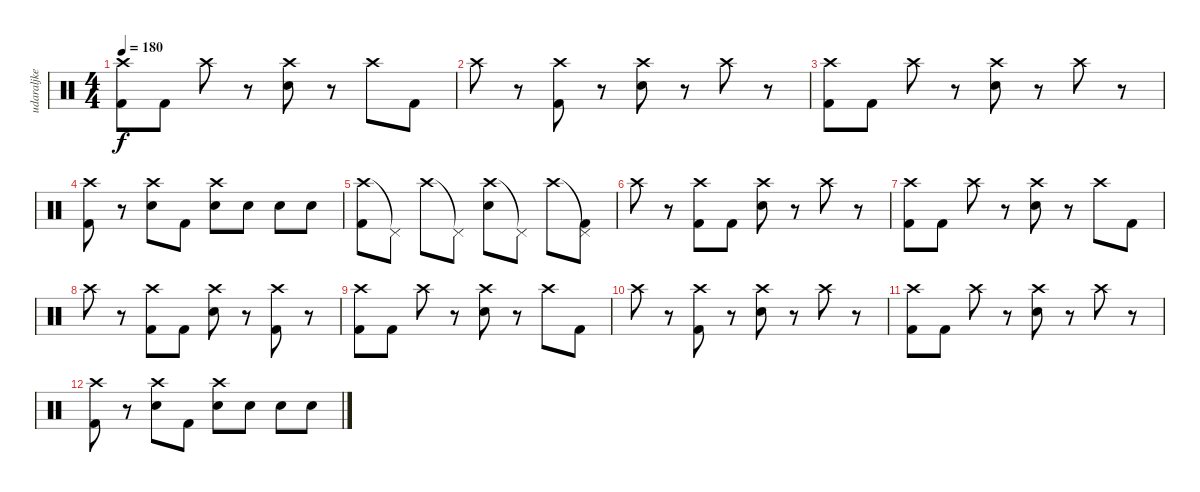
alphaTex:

\track ("udaraljke" "udaraljke") {instrument percussion}
\staff {score}
\articulation defaults
\ts (4 4)
\tempo 180
\clef neutral
\ks c
("Crash high (hit)" "Kick (hit) 2").8{dy f} "Kick (hit) 2".8 "Crash high (hit)".8 r.8 ("Crash high (hit)" "Snare (hit) 2").8 r.8 "Crash high (hit)".8 "Kick (hit) 2".8 |
"Crash high (hit)".8 r.8 ("Crash high (hit)" "Kick (hit) 2").8 r.8 ("Crash high (hit)" "Snare (hit) 2").8 r.8 "Crash high (hit)".8 r.8 |
("Crash high (hit)" "Kick (hit) 2").8 "Kick (hit) 2".8 "Crash high (hit)".8 r.8 ("Crash high (hit)" "Snare (hit) 2").8 r.8 "Crash high (hit)".8 r.8 |
("Crash high (hit)" "Kick (hit) 2").8 r.8 ("Crash high (hit)" "Snare (hit) 2").8 "Kick (hit) 2".8 ("Crash high (hit)" "Snare (hit) 2").8 "Snare (hit) 2".8 "Snare (hit) 2".8 "Snare (hit) 2".8 |
("Crash high (hit)" "Kick (hit) 2").8 "Pedal Hi-Hat (hit)"{t}.8 "Crash high (hit)".8 "Pedal Hi-Hat (hit)"{t}.8 ("Crash high (hit)" "Snare (hit) 2").8 "Pedal Hi-Hat (hit)"{t}.8 "Crash high (hit)".8 ("Pedal Hi-Hat (hit)"{t} "Kick (hit) 2").8 |
"Crash high (hit)".8 r.8 ("Crash high (hit)" "Kick (hit) 2").8 "Kick (hit) 2".8 ("Crash high (hit)" "Snare (hit) 2").8 r.8 "Crash high (hit)".8 r.8 |
("Crash high (hit)" "Kick (hit) 2").8 "Kick (hit) 2".8 "Crash high (hit)".8 r.8 ("Crash high (hit)" "Snare (hit) 2").8 r.8 "Crash high (hit)".8 "Kick (hit) 2".8 |
"Crash high (hit)".8 r.8 ("Crash high (hit)" "Kick (hit) 2").8 "Kick (hit) 2".8 ("Crash high (hit)" "Snare (hit) 2").8 r.8 ("Crash high (hit)" "Kick (hit) 2").8 r.8 |
("Crash high (hit)" "Kick (hit) 2").8 "Kick (hit) 2".8 "Crash high (hit)".8 r.8 ("Crash high (hit)" "Snare (hit) 2").8 r.8 "Crash high (hit)".8 "Kick (hit) 2".8 |
"Crash high (hit)".8 r.8 ("Crash high (hit)" "Kick (hit) 2").8 r.8 ("Crash high (hit)" "Snare (hit) 2").8 r.8 "Crash high (hit)".8 r.8 |
("Crash high (hit)" "Kick (hit) 2").8 "Kick (hit) 2".8 "Crash high (hit)".8 r.8 ("Crash high (hit)" "Snare (hit) 2").8 r.8 "Crash high (hit)".8 r.8 |
("Crash high (hit)" "Kick (hit) 2").8 r.8 ("Crash high (hit)" "Snare (hit) 2").8 "Kick (hit) 2".8 ("Crash high (hit)" "Snare (hit) 2").8 "Snare (hit) 2".8 "Snare (hit) 2".8 "Snare (hit) 2".8
